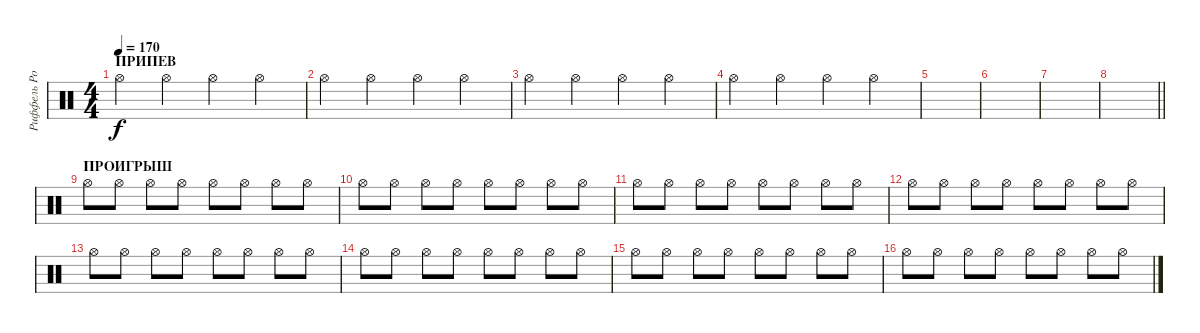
\track ("Риффель Роман(хэты)" "Риффель Ро") {instrument percussion}
\staff {score}
\articulation defaults
\ts (4 4)
\section ("" "ПРИПЕВ")
\tempo 170
\clef neutral
\ks c "Hi-Hat (open)".4{dy f} "Hi-Hat (open)".4 "Hi-Hat (open)".4 "Hi-Hat (open)".4
|
"Hi-Hat (open)".4 "Hi-Hat (open)".4 "Hi-Hat (open)".4 "Hi-Hat (open)".4 |
"Hi-Hat (open)".4 "Hi-Hat (open)".4 "Hi-Hat (open)".4 "Hi-Hat (open)".4 |
"Hi-Hat (open)".4 "Hi-Hat (open)".4 "Hi-Hat (open)".4 "Hi-Hat (open)".4 |
|
|
|
\barLineRight lightlight
|
\section ("" "ПРОИГРЫШ")
"Hi-Hat (open)".8 "Hi-Hat (open)".8 "Hi-Hat (open)".8 "Hi-Hat (open)".8 "Hi-Hat (open)".8 "Hi-Hat (open)".8 "Hi-Hat (open)".8 "Hi-Hat (open)".8 |
"Hi-Hat (open)".8 "Hi-Hat (open)".8 "Hi-Hat (open)".8 "Hi-Hat (open)".8 "Hi-Hat (open)".8 "Hi-Hat (open)".8 "Hi-Hat (open)".8 "Hi-Hat (open)".8 |
"Hi-Hat (open)".8 "Hi-Hat (open)".8 "Hi-Hat (open)".8 "Hi-Hat (open)".8 "Hi-Hat (open)".8 "Hi-Hat (open)".8 "Hi-Hat (open)".8 "Hi-Hat (open)".8 |
"Hi-Hat (open)".8 "Hi-Hat (open)".8 "Hi-Hat (open)".8 "Hi-Hat (open)".8 "Hi-Hat (open)".8 "Hi-Hat (open)".8 "Hi-Hat (open)".8 "Hi-Hat (open)".8 |
"Hi-Hat (open)".8 "Hi-Hat (open)".8 "Hi-Hat (open)".8 "Hi-Hat (open)".8 "Hi-Hat (open)".8 "Hi-Hat (open)".8 "Hi-Hat (open)".8 "Hi-Hat (open)".8 |
"Hi-Hat (open)".8 "Hi-Hat (open)".8 "Hi-Hat (open)".8 "Hi-Hat (open)".8 "Hi-Hat (open)".8 "Hi-Hat (open)".8 "Hi-Hat (open)".8 "Hi-Hat (open)".8 |
"Hi-Hat (open)".8 "Hi-Hat (open)".8 "Hi-Hat (open)".8 "Hi-Hat (open)".8 "Hi-Hat (open)".8 "Hi-Hat (open)".8 "Hi-Hat (open)".8 "Hi-Hat (open)".8 |
"Hi-Hat (open)".8 "Hi-Hat (open)".8 "Hi-Hat (open)".8 "Hi-Hat (open)".8 "Hi-Hat (open)".8 "Hi-Hat (open)".8 "Hi-Hat (open)".8 "Hi-Hat (open)".8
